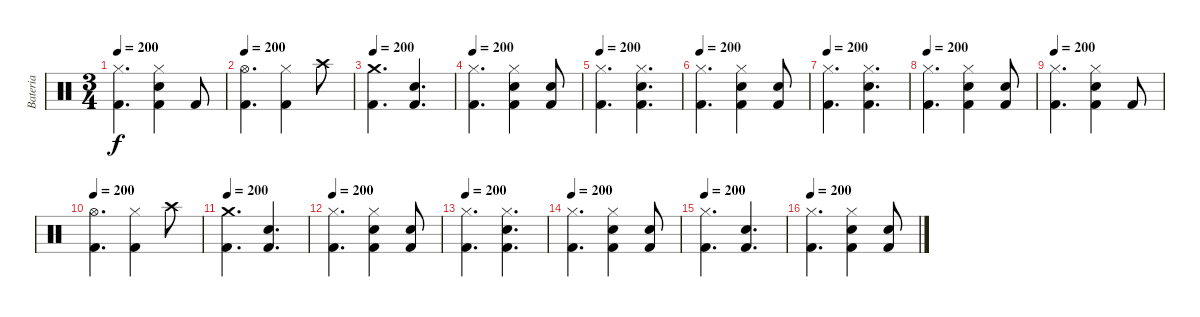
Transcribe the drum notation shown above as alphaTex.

\track ("Bateria" "Bateria") {instrument percussion}
\staff {score}
\articulation defaults
\ts (3 4)
\tempo 200
\clef neutral
\ks c
("Hi-Hat (closed)" "Kick (hit) 2").4{d dy f} ("Hi-Hat (closed)" "Electric Snare (hit)" "Kick (hit) 2").4 "Kick (hit) 2".8 |
\tempo 200
("Hi-Hat (open)" "Kick (hit) 2").4{d} ("Hi-Hat (closed)" "Kick (hit) 2").4 "Crash high (hit)".8 |
\tempo 200
("Crash medium (hit)" "Kick (hit) 2").4{d} ("Electric Snare (hit)" "Kick (hit) 2").4{d} |
\tempo 200
("Hi-Hat (closed)" "Kick (hit) 2").4{d} ("Hi-Hat (closed)" "Electric Snare (hit)" "Kick (hit) 2").4 ("Electric Snare (hit)" "Kick (hit) 2").8 |
\tempo 200
("Hi-Hat (closed)" "Kick (hit) 2").4{d} ("Hi-Hat (closed)" "Electric Snare (hit)" "Kick (hit) 2").4{d} |
\tempo 200
("Hi-Hat (closed)" "Kick (hit) 2").4{d} ("Hi-Hat (closed)" "Electric Snare (hit)" "Kick (hit) 2").4 ("Electric Snare (hit)" "Kick (hit) 2").8 |
\tempo 200
("Hi-Hat (closed)" "Kick (hit) 2").4{d} ("Hi-Hat (closed)" "Electric Snare (hit)" "Kick (hit) 2").4{d} |
\tempo 200
("Hi-Hat (closed)" "Kick (hit) 2").4{d} ("Hi-Hat (closed)" "Electric Snare (hit)" "Kick (hit) 2").4 ("Electric Snare (hit)" "Kick (hit) 2").8 |
\tempo 200
("Hi-Hat (closed)" "Kick (hit) 2").4{d} ("Hi-Hat (closed)" "Electric Snare (hit)" "Kick (hit) 2").4 "Kick (hit) 2".8 |
\tempo 200
("Hi-Hat (open)" "Kick (hit) 2").4{d} ("Hi-Hat (closed)" "Kick (hit) 2").4 "Crash high (hit)".8 |
\tempo 200
("Crash medium (hit)" "Kick (hit) 2").4{d} ("Electric Snare (hit)" "Kick (hit) 2").4{d} |
\tempo 200
("Hi-Hat (closed)" "Kick (hit) 2").4{d} ("Hi-Hat (closed)" "Electric Snare (hit)" "Kick (hit) 2").4 ("Electric Snare (hit)" "Kick (hit) 2").8 |
\tempo 200
("Hi-Hat (closed)" "Kick (hit) 2").4{d} ("Hi-Hat (closed)" "Electric Snare (hit)" "Kick (hit) 2").4{d} |
\tempo 200
("Hi-Hat (closed)" "Kick (hit) 2").4{d} ("Hi-Hat (closed)" "Electric Snare (hit)" "Kick (hit) 2").4 ("Electric Snare (hit)" "Kick (hit) 2").8 |
\tempo 200
("Hi-Hat (closed)" "Kick (hit) 2").4{d} ("Electric Snare (hit)" "Kick (hit) 2").4{d} |
\tempo 200
("Hi-Hat (closed)" "Kick (hit) 2").4{d} ("Hi-Hat (closed)" "Electric Snare (hit)" "Kick (hit) 2").4 ("Electric Snare (hit)" "Kick (hit) 2").8
